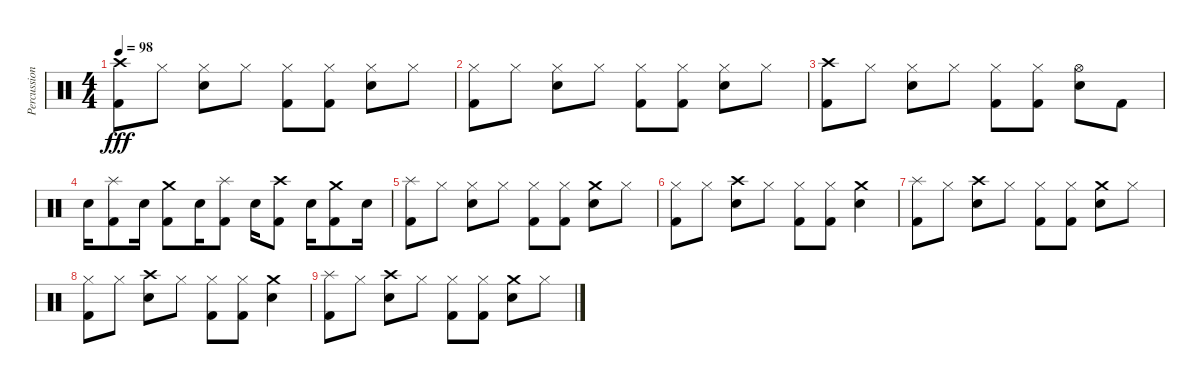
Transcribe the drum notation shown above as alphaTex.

\track ("Percussion" "Percussion") {instrument percussion}
\staff {score}
\articulation defaults
\ts (4 4)
\tempo 98
\clef neutral
\ks c
("Crash high (hit)" "Kick (hit) 2").8{dy fff} "Hi-Hat (closed)".8 ("Hi-Hat (closed)" "Snare (hit) 2").8 "Hi-Hat (closed)".8 ("Hi-Hat (closed)" "Kick (hit) 2").8 ("Hi-Hat (closed)" "Kick (hit) 2").8 ("Hi-Hat (closed)" "Snare (hit) 2").8 "Hi-Hat (closed)".8 |
("Hi-Hat (closed)" "Kick (hit) 2").8 "Hi-Hat (closed)".8 ("Hi-Hat (closed)" "Snare (hit) 2").8 "Hi-Hat (closed)".8 ("Hi-Hat (closed)" "Kick (hit) 2").8 ("Hi-Hat (closed)" "Kick (hit) 2").8 ("Hi-Hat (closed)" "Snare (hit) 2").8 "Hi-Hat (closed)".8 |
("Crash high (hit)" "Kick (hit) 2").8 "Hi-Hat (closed)".8 ("Hi-Hat (closed)" "Snare (hit) 2").8 "Hi-Hat (closed)".8 ("Hi-Hat (closed)" "Kick (hit) 2").8 ("Hi-Hat (closed)" "Kick (hit) 2").8 ("Hi-Hat (open)" "Snare (hit) 2").8 "Kick (hit) 2".8 |
"Snare (hit) 2".16 ("Splash (hit)" "Kick (hit) 2").8 "Snare (hit) 2".16 ("Crash medium (hit)" "Kick (hit) 2").8 "Snare (hit) 2".16 ("Splash (hit)" "Kick (hit) 2").8 "Snare (hit) 2".16 ("Crash high (hit)" "Kick (hit) 2").8 "Snare (hit) 2".16 ("Crash medium (hit)" "Kick (hit) 2").8 "Snare (hit) 2".16 |
("Splash (hit)" "Kick (hit) 2").8{volume 0} "Hi-Hat (closed)".8 ("Hi-Hat (closed)" "Snare (hit) 2").8 "Hi-Hat (closed)".8 ("Hi-Hat (closed)" "Kick (hit) 2").8 ("Hi-Hat (closed)" "Kick (hit) 2").8 ("Crash medium (hit)" "Snare (hit) 2").8 "Hi-Hat (closed)".8 |
("Hi-Hat (closed)" "Kick (hit) 2").8 "Hi-Hat (closed)".8 ("Crash high (hit)" "Snare (hit) 2").8 "Hi-Hat (closed)".8 ("Hi-Hat (closed)" "Kick (hit) 2").8 ("Hi-Hat (closed)" "Kick (hit) 2").8 ("Crash medium (hit)" "Snare (hit) 2").4 |
("Splash (hit)" "Kick (hit) 2").8 "Hi-Hat (closed)".8 ("Crash high (hit)" "Snare (hit) 2").8 "Hi-Hat (closed)".8 ("Hi-Hat (closed)" "Kick (hit) 2").8 ("Hi-Hat (closed)" "Kick (hit) 2").8 ("Crash medium (hit)" "Snare (hit) 2").8 "Hi-Hat (closed)".8 |
("Hi-Hat (closed)" "Kick (hit) 2").8 "Hi-Hat (closed)".8 ("Crash high (hit)" "Snare (hit) 2").8 "Hi-Hat (closed)".8 ("Hi-Hat (closed)" "Kick (hit) 2").8 ("Hi-Hat (closed)" "Kick (hit) 2").8 ("Crash medium (hit)" "Snare (hit) 2").4 |
("Splash (hit)" "Kick (hit) 2").8 "Hi-Hat (closed)".8 ("Crash high (hit)" "Snare (hit) 2").8 "Hi-Hat (closed)".8 ("Hi-Hat (closed)" "Kick (hit) 2").8 ("Hi-Hat (closed)" "Kick (hit) 2").8 ("Crash medium (hit)" "Snare (hit) 2").8 "Hi-Hat (closed)".8
